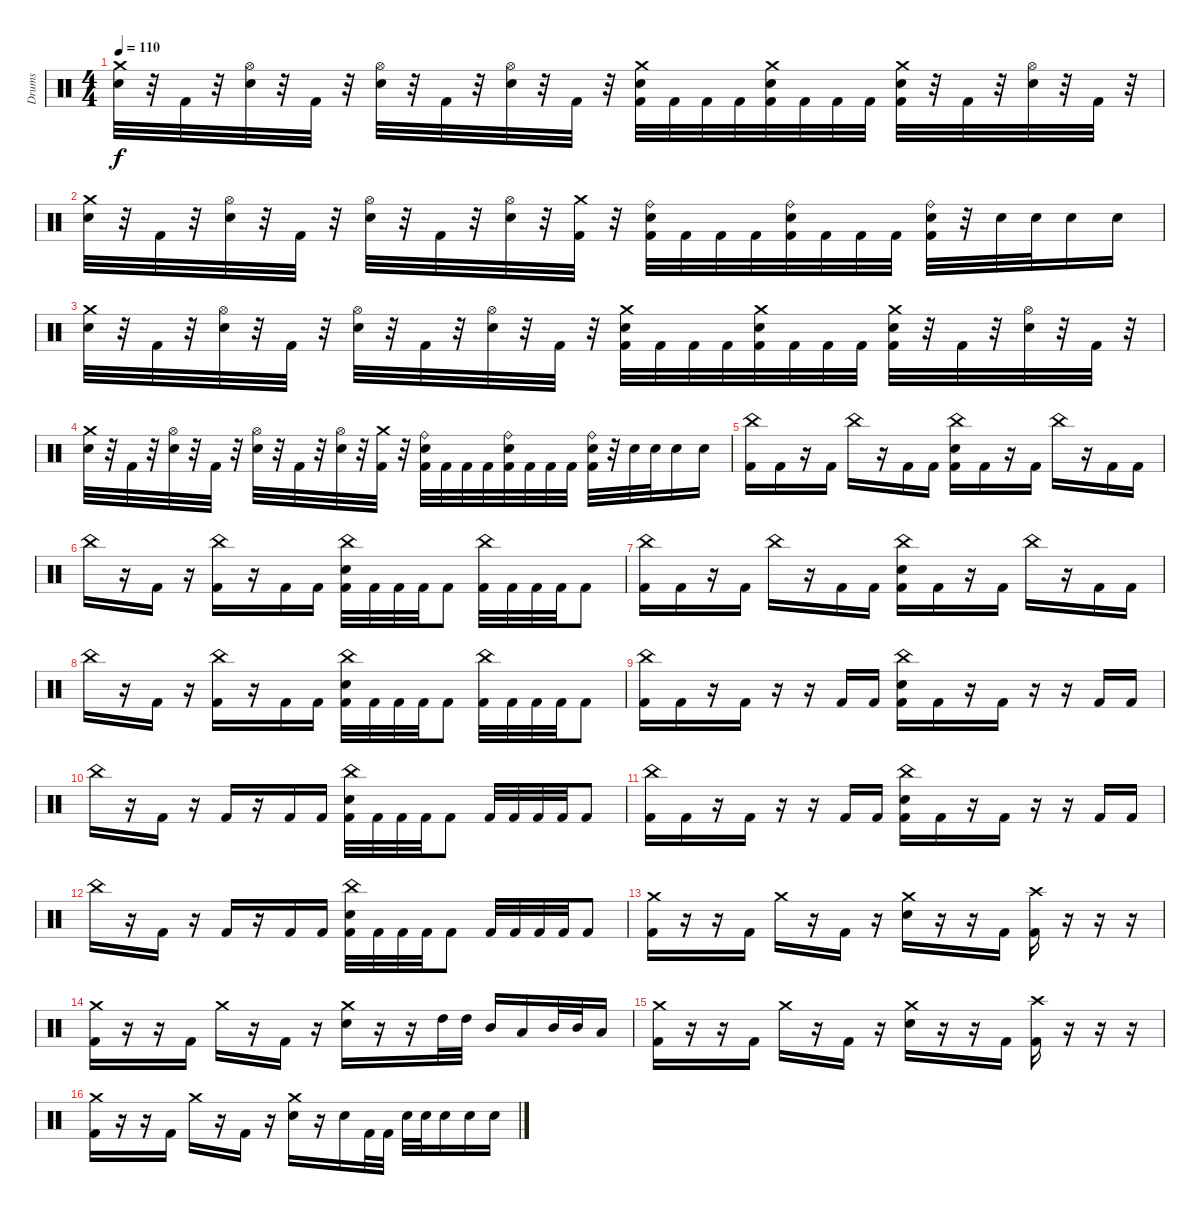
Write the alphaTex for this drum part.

\track ("Drums" "Drums") {instrument percussion}
\staff {score}
\articulation defaults
\ts (4 4)
\tempo 110
\clef neutral
\ks c
("Crash medium (hit)" "Electric Snare (hit)").32{dy f} r.32 "Kick (hit) 2".32 r.32 ("Hi-Hat (open)" "Electric Snare (hit)").32 r.32 "Kick (hit) 2".32 r.32 ("Hi-Hat (open)" "Electric Snare (hit)").32 r.32 "Kick (hit) 2".32 r.32 ("Hi-Hat (open)" "Electric Snare (hit)").32 r.32 "Kick (hit) 2".32 r.32 ("Crash medium (hit)" "Electric Snare (hit)" "Kick (hit) 2").32 "Kick (hit) 2".32 "Kick (hit) 2".32 "Kick (hit) 2".32 ("Crash medium (hit)" "Electric Snare (hit)" "Kick (hit) 2").32 "Kick (hit) 2".32 "Kick (hit) 2".32 "Kick (hit) 2".32 ("Crash medium (hit)" "Electric Snare (hit)" "Kick (hit) 2").32 r.32 "Kick (hit) 2".32 r.32 ("Hi-Hat (open)" "Electric Snare (hit)").32 r.32 "Kick (hit) 2".32 r.32 |
("Crash medium (hit)" "Electric Snare (hit)").32 r.32 "Kick (hit) 2".32 r.32 ("Hi-Hat (open)" "Electric Snare (hit)").32 r.32 "Kick (hit) 2".32 r.32 ("Hi-Hat (open)" "Electric Snare (hit)").32 r.32 "Kick (hit) 2".32 r.32 ("Hi-Hat (open)" "Electric Snare (hit)").32 r.32 ("Crash medium (hit)" "Kick (hit) 2").32 r.32 ("Ride (bell)" "Electric Snare (hit)" "Kick (hit) 2").32 "Kick (hit) 2".32 "Kick (hit) 2".32 "Kick (hit) 2".32 ("Ride (bell)" "Electric Snare (hit)" "Kick (hit) 2").32 "Kick (hit) 2".32 "Kick (hit) 2".32 "Kick (hit) 2".32 ("Ride (bell)" "Electric Snare (hit)" "Kick (hit) 2").32 r.32 "Electric Snare (hit)".32 "Electric Snare (hit)".32 "Electric Snare (hit)".16 "Electric Snare (hit)".16 |
("Crash medium (hit)" "Electric Snare (hit)").32 r.32 "Kick (hit) 2".32 r.32 ("Hi-Hat (open)" "Electric Snare (hit)").32 r.32 "Kick (hit) 2".32 r.32 ("Hi-Hat (open)" "Electric Snare (hit)").32 r.32 "Kick (hit) 2".32 r.32 ("Hi-Hat (open)" "Electric Snare (hit)").32 r.32 "Kick (hit) 2".32 r.32 ("Crash medium (hit)" "Electric Snare (hit)" "Kick (hit) 2").32 "Kick (hit) 2".32 "Kick (hit) 2".32 "Kick (hit) 2".32 ("Crash medium (hit)" "Electric Snare (hit)" "Kick (hit) 2").32 "Kick (hit) 2".32 "Kick (hit) 2".32 "Kick (hit) 2".32 ("Crash medium (hit)" "Electric Snare (hit)" "Kick (hit) 2").32 r.32 "Kick (hit) 2".32 r.32 ("Hi-Hat (open)" "Electric Snare (hit)").32 r.32 "Kick (hit) 2".32 r.32 |
("Crash medium (hit)" "Electric Snare (hit)").32 r.32 "Kick (hit) 2".32 r.32 ("Hi-Hat (open)" "Electric Snare (hit)").32 r.32 "Kick (hit) 2".32 r.32 ("Hi-Hat (open)" "Electric Snare (hit)").32 r.32 "Kick (hit) 2".32 r.32 ("Hi-Hat (open)" "Electric Snare (hit)").32 r.32 ("Crash medium (hit)" "Kick (hit) 2").32 r.32 ("Ride (bell)" "Electric Snare (hit)" "Kick (hit) 2").32 "Kick (hit) 2".32 "Kick (hit) 2".32 "Kick (hit) 2".32 ("Ride (bell)" "Electric Snare (hit)" "Kick (hit) 2").32 "Kick (hit) 2".32 "Kick (hit) 2".32 "Kick (hit) 2".32 ("Ride (bell)" "Electric Snare (hit)" "Kick (hit) 2").32 r.32 "Electric Snare (hit)".32 "Electric Snare (hit)".32 "Electric Snare (hit)".16 "Electric Snare (hit)".16 |
("China (hit)" "Kick (hit) 2").16 "Kick (hit) 2".16 r.16 "Kick (hit) 2".16 "China (hit)".16 r.16 "Kick (hit) 2".16 "Kick (hit) 2".16 ("China (hit)" "Electric Snare (hit)" "Kick (hit) 2").16 "Kick (hit) 2".16 r.16 "Kick (hit) 2".16 "China (hit)".16 r.16 "Kick (hit) 2".16 "Kick (hit) 2".16 |
"China (hit)".16 r.16 "Kick (hit) 2".16 r.16 ("China (hit)" "Kick (hit) 2").16 r.16 "Kick (hit) 2".16 "Kick (hit) 2".16 ("China (hit)" "Electric Snare (hit)" "Kick (hit) 2").32 "Kick (hit) 2".32 "Kick (hit) 2".32 "Kick (hit) 2".32 "Kick (hit) 2".8 ("China (hit)" "Kick (hit) 2").32 "Kick (hit) 2".32 "Kick (hit) 2".32 "Kick (hit) 2".32 "Kick (hit) 2".8 |
("China (hit)" "Kick (hit) 2").16 "Kick (hit) 2".16 r.16 "Kick (hit) 2".16 "China (hit)".16 r.16 "Kick (hit) 2".16 "Kick (hit) 2".16 ("China (hit)" "Electric Snare (hit)" "Kick (hit) 2").16 "Kick (hit) 2".16 r.16 "Kick (hit) 2".16 "China (hit)".16 r.16 "Kick (hit) 2".16 "Kick (hit) 2".16 |
"China (hit)".16 r.16 "Kick (hit) 2".16 r.16 ("China (hit)" "Kick (hit) 2").16 r.16 "Kick (hit) 2".16 "Kick (hit) 2".16 ("China (hit)" "Electric Snare (hit)" "Kick (hit) 2").32 "Kick (hit) 2".32 "Kick (hit) 2".32 "Kick (hit) 2".32 "Kick (hit) 2".8 ("China (hit)" "Kick (hit) 2").32 "Kick (hit) 2".32 "Kick (hit) 2".32 "Kick (hit) 2".32 "Kick (hit) 2".8 |
("China (hit)" "Kick (hit) 2").16 "Kick (hit) 2".16 r.16 "Kick (hit) 2".16 r.16 r.16 "Kick (hit) 2".16 "Kick (hit) 2".16 ("China (hit)" "Electric Snare (hit)" "Kick (hit) 2").16 "Kick (hit) 2".16 r.16 "Kick (hit) 2".16 r.16 r.16 "Kick (hit) 2".16 "Kick (hit) 2".16 |
"China (hit)".16 r.16 "Kick (hit) 2".16 r.16 "Kick (hit) 2".16 r.16 "Kick (hit) 2".16 "Kick (hit) 2".16 ("China (hit)" "Electric Snare (hit)" "Kick (hit) 2").32 "Kick (hit) 2".32 "Kick (hit) 2".32 "Kick (hit) 2".32 "Kick (hit) 2".8 "Kick (hit) 2".32 "Kick (hit) 2".32 "Kick (hit) 2".32 "Kick (hit) 2".32 "Kick (hit) 2".8 |
("China (hit)" "Kick (hit) 2").16 "Kick (hit) 2".16 r.16 "Kick (hit) 2".16 r.16 r.16 "Kick (hit) 2".16 "Kick (hit) 2".16 ("China (hit)" "Electric Snare (hit)" "Kick (hit) 2").16 "Kick (hit) 2".16 r.16 "Kick (hit) 2".16 r.16 r.16 "Kick (hit) 2".16 "Kick (hit) 2".16 |
"China (hit)".16 r.16 "Kick (hit) 2".16 r.16 "Kick (hit) 2".16 r.16 "Kick (hit) 2".16 "Kick (hit) 2".16 ("China (hit)" "Electric Snare (hit)" "Kick (hit) 2").32 "Kick (hit) 2".32 "Kick (hit) 2".32 "Kick (hit) 2".32 "Kick (hit) 2".8 "Kick (hit) 2".32 "Kick (hit) 2".32 "Kick (hit) 2".32 "Kick (hit) 2".32 "Kick (hit) 2".8 |
("Crash medium (hit)" "Kick (hit) 2").16 r.16 r.16 "Kick (hit) 2".16 "Crash medium (hit)".16 r.16 "Kick (hit) 2".16 r.16 ("Crash medium (hit)" "Electric Snare (hit)").16 r.16 r.16 "Kick (hit) 2".16 ("Crash high (hit)" "Kick (hit) 2").16 r.16 r.16 r.16 |
("Crash medium (hit)" "Kick (hit) 2").16 r.16 r.16 "Kick (hit) 2".16 "Crash medium (hit)".16 r.16 "Kick (hit) 2".16 r.16 ("Crash medium (hit)" "Electric Snare (hit)").16 r.16 r.16 "High Tom (hit)".32 "High Tom (hit)".32 "Mid Tom (hit)".16 "Low Tom (hit)".16 "Mid Tom (hit)".32 "Mid Tom (hit)".32 "Low Tom (hit)".16 |
("Crash medium (hit)" "Kick (hit) 2").16 r.16 r.16 "Kick (hit) 2".16 "Crash medium (hit)".16 r.16 "Kick (hit) 2".16 r.16 ("Crash medium (hit)" "Electric Snare (hit)").16 r.16 r.16 "Kick (hit) 2".16 ("Crash high (hit)" "Kick (hit) 2").16 r.16 r.16 r.16 |
("Crash medium (hit)" "Kick (hit) 2").16 r.16 r.16 "Kick (hit) 2".16 "Crash medium (hit)".16 r.16 "Kick (hit) 2".16 r.16 ("Crash medium (hit)" "Electric Snare (hit)").16 r.16 "Electric Snare (hit)".16 "Kick (hit) 2".32 "Kick (hit) 2".32 "Electric Snare (hit)".32 "Electric Snare (hit)".32 "Electric Snare (hit)".16 "Electric Snare (hit)".16 "Electric Snare (hit)".16
